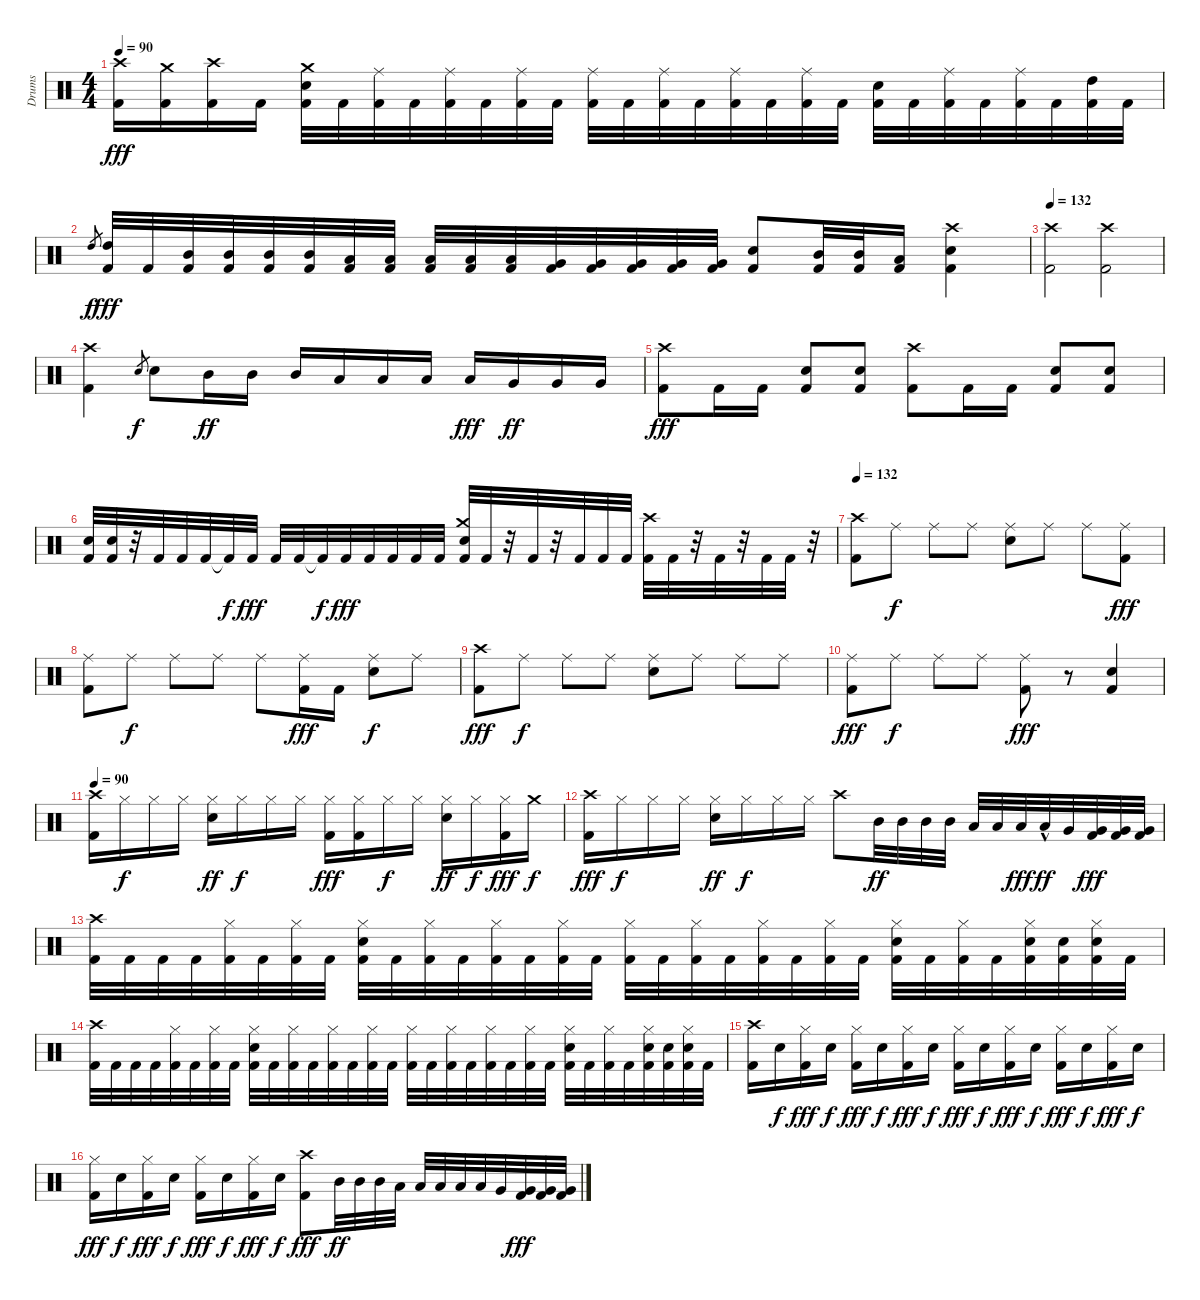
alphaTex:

\track ("Drums" "Drums") {instrument percussion}
\staff {score}
\articulation defaults
\ts (4 4)
\tempo 90
\clef neutral
\ks c
("Crash high (hit)" "Kick (hit) 2").16{dy fff} ("Crash medium (hit)" "Kick (hit) 2").16 ("Crash high (hit)" "Kick (hit) 2").16 "Kick (hit) 2".16 ("Crash medium (hit)" "Snare (hit) 2" "Kick (hit) 2").32 "Kick (hit) 2".32 ("Ride (middle)" "Kick (hit) 2").32 "Kick (hit) 2".32 ("Ride (middle)" "Kick (hit) 2").32 "Kick (hit) 2".32 ("Ride (middle)" "Kick (hit) 2").32 "Kick (hit) 2".32 ("Ride (middle)" "Kick (hit) 2").32 "Kick (hit) 2".32 ("Ride (middle)" "Kick (hit) 2").32 "Kick (hit) 2".32 ("Ride (middle)" "Kick (hit) 2").32 "Kick (hit) 2".32 ("Ride (middle)" "Kick (hit) 2").32 "Kick (hit) 2".32 ("Snare (hit) 2" "Kick (hit) 2").32 "Kick (hit) 2".32 ("Ride (middle)" "Kick (hit) 2").32 "Kick (hit) 2".32 ("Ride (middle)" "Kick (hit) 2").32 "Kick (hit) 2".32 ("High Tom (hit)" "Kick (hit) 2").32 "Kick (hit) 2".32 |
"High Tom (hit)".8{gr dy f} ("High Tom (hit)" "Kick (hit) 2").32{dy fff} "Kick (hit) 2".32 ("Mid Tom (hit)" "Kick (hit) 2").32 ("Mid Tom (hit)" "Kick (hit) 2").32 ("Mid Tom (hit)" "Kick (hit) 2").32 ("Mid Tom (hit)" "Kick (hit) 2").32 ("Low Tom (hit)" "Kick (hit) 2").32 ("Low Tom (hit)" "Kick (hit) 2").32 ("Low Tom (hit)" "Kick (hit) 2").32 ("Low Tom (hit)" "Kick (hit) 2").32 ("Low Tom (hit)" "Kick (hit) 2").32 ("Very Low Tom (hit)" "Kick (hit) 2").32 ("Very Low Tom (hit)" "Kick (hit) 2").32 ("Very Low Tom (hit)" "Kick (hit) 2").32 ("Very Low Tom (hit)" "Kick (hit) 2").32 ("Very Low Tom (hit)" "Kick (hit) 2").32 ("Snare (hit) 2" "Kick (hit) 2").8 ("Mid Tom (hit)" "Kick (hit) 2").32 ("Mid Tom (hit)" "Kick (hit) 2").32 ("Low Tom (hit)" "Kick (hit) 2").16 ("Crash high (hit)" "Snare (hit) 2" "Kick (hit) 2").4 |
\tempo 132
("Crash high (hit)" "Kick (hit) 2").2 ("Crash high (hit)" "Kick (hit) 2").2 |
("Crash high (hit)" "Kick (hit) 2").4 "Snare (hit) 2".8{gr dy f} "Snare (hit) 2".8 "Mid Tom (hit)".16{dy ff} "Mid Tom (hit)".16 "Mid Tom (hit)".16 "Low Tom (hit)".16 "Low Tom (hit)".16 "Low Tom (hit)".16 "Low Tom (hit)".16{dy fff} "Very Low Tom (hit)".16{dy ff} "Very Low Tom (hit)".16 "Very Low Tom (hit)".16 |
("Crash high (hit)" "Kick (hit) 2").8{dy fff} "Kick (hit) 2".16 "Kick (hit) 2".16 ("Snare (hit) 2" "Kick (hit) 2").8 ("Snare (hit) 2" "Kick (hit) 2").8 ("Crash high (hit)" "Kick (hit) 2").8 "Kick (hit) 2".16 "Kick (hit) 2".16 ("Snare (hit) 2" "Kick (hit) 2").8 ("Snare (hit) 2" "Kick (hit) 2").8 |
("Snare (hit) 2" "Kick (hit) 2").32 ("Snare (hit) 2" "Kick (hit) 2").32 r.32 "Kick (hit) 2".32 "Kick (hit) 2".32 "Kick (hit) 2".32 "Kick (hit) 2"{t}.32{dy f} "Kick (hit) 2".32{dy fff} "Kick (hit) 2".32 "Kick (hit) 2".32 "Kick (hit) 2"{t}.32{dy f} "Kick (hit) 2".32{dy fff} "Kick (hit) 2".32 "Kick (hit) 2".32 "Kick (hit) 2".32 "Kick (hit) 2".32 ("Crash medium (hit)" "Snare (hit) 2" "Kick (hit) 2").32 "Kick (hit) 2".32 r.32 "Kick (hit) 2".32 r.32 "Kick (hit) 2".32 "Kick (hit) 2".32 "Kick (hit) 2".32 ("Crash high (hit)" "Kick (hit) 2").32 "Kick (hit) 2".32 r.32 "Kick (hit) 2".32 r.32 "Kick (hit) 2".32 "Kick (hit) 2".32 r.32 |
\tempo 132
("Crash high (hit)" "Kick (hit) 2").8 "Ride (middle)".8{dy f} "Ride (middle)".8 "Ride (middle)".8 ("Ride (middle)" "Snare (hit) 2").8 "Ride (middle)".8 "Ride (middle)".8 ("Ride (middle)" "Kick (hit) 2").8{dy fff} |
("Ride (middle)" "Kick (hit) 2").8 "Ride (middle)".8{dy f} "Ride (middle)".8 "Ride (middle)".8 "Ride (middle)".8 ("Ride (middle)" "Kick (hit) 2").16{dy fff} "Kick (hit) 2".16 ("Ride (middle)" "Snare (hit) 2").8{dy f} "Ride (middle)".8 |
("Crash high (hit)" "Kick (hit) 2").8{dy fff} "Ride (middle)".8{dy f} "Ride (middle)".8 "Ride (middle)".8 ("Ride (middle)" "Snare (hit) 2").8 "Ride (middle)".8 "Ride (middle)".8 "Ride (middle)".8 |
("Ride (middle)" "Kick (hit) 2").8{dy fff} "Ride (middle)".8{dy f} "Ride (middle)".8 "Ride (middle)".8 ("Ride (middle)" "Kick (hit) 2").8{dy fff} r.8 ("Snare (hit) 2" "Kick (hit) 2").4 |
\tempo 90
("Crash high (hit)" "Kick (hit) 2").16 "Hi-Hat (closed)".16{dy f} "Hi-Hat (closed)".16 "Hi-Hat (closed)".16 ("Hi-Hat (closed)" "Snare (hit) 2").16{dy ff} "Hi-Hat (closed)".16{dy f} "Hi-Hat (closed)".16 "Hi-Hat (closed)".16 ("Hi-Hat (closed)" "Kick (hit) 2").16{dy fff} ("Hi-Hat (closed)" "Kick (hit) 2").16 "Hi-Hat (closed)".16{dy f} "Hi-Hat (closed)".16 ("Hi-Hat (closed)" "Snare (hit) 2").16{dy ff} "Hi-Hat (closed)".16{dy f} ("Hi-Hat (closed)" "Kick (hit) 2").16{dy fff} "Crash medium (hit)".16{dy f} |
("Crash high (hit)" "Kick (hit) 2").16{dy fff} "Hi-Hat (closed)".16{dy f} "Hi-Hat (closed)".16 "Hi-Hat (closed)".16 ("Hi-Hat (closed)" "Snare (hit) 2").16{dy ff} "Hi-Hat (closed)".16{dy f} "Hi-Hat (closed)".16 "Hi-Hat (closed)".16 "Crash high (hit)".8 "Mid Tom (hit)".32{dy ff} "Mid Tom (hit)".32 "Mid Tom (hit)".32 "Mid Tom (hit)".32 "Low Tom (hit)".32 "Low Tom (hit)".32 "Low Tom (hit)".32{dy fff} "Low Tom (hit)"{hac}.32{dy ff} "Very Low Tom (hit)".32 ("Very Low Tom (hit)" "Kick (hit) 2").32{dy fff} ("Very Low Tom (hit)" "Kick (hit) 2").32 ("Very Low Tom (hit)" "Kick (hit) 2").32 |
("Crash high (hit)" "Kick (hit) 2").32 "Kick (hit) 2".32 "Kick (hit) 2".32 "Kick (hit) 2".32 ("Hi-Hat (closed)" "Kick (hit) 2").32 "Kick (hit) 2".32 ("Hi-Hat (closed)" "Kick (hit) 2").32 "Kick (hit) 2".32 ("Hi-Hat (closed)" "Snare (hit) 2" "Kick (hit) 2").32 "Kick (hit) 2".32 ("Hi-Hat (closed)" "Kick (hit) 2").32 "Kick (hit) 2".32 ("Hi-Hat (closed)" "Kick (hit) 2").32 "Kick (hit) 2".32 ("Hi-Hat (closed)" "Kick (hit) 2").32 "Kick (hit) 2".32 ("Hi-Hat (closed)" "Kick (hit) 2").32 "Kick (hit) 2".32 ("Hi-Hat (closed)" "Kick (hit) 2").32 "Kick (hit) 2".32 ("Hi-Hat (closed)" "Kick (hit) 2").32 "Kick (hit) 2".32 ("Hi-Hat (closed)" "Kick (hit) 2").32 "Kick (hit) 2".32 ("Hi-Hat (closed)" "Snare (hit) 2" "Kick (hit) 2").32 "Kick (hit) 2".32 ("Hi-Hat (closed)" "Kick (hit) 2").32 "Kick (hit) 2".32 ("Hi-Hat (closed)" "Snare (hit) 2" "Kick (hit) 2").32 ("Snare (hit) 2" "Kick (hit) 2").32 ("Hi-Hat (closed)" "Snare (hit) 2" "Kick (hit) 2").32 "Kick (hit) 2".32 |
("Crash high (hit)" "Kick (hit) 2").32 "Kick (hit) 2".32 "Kick (hit) 2".32 "Kick (hit) 2".32 ("Hi-Hat (closed)" "Kick (hit) 2").32 "Kick (hit) 2".32 ("Hi-Hat (closed)" "Kick (hit) 2").32 "Kick (hit) 2".32 ("Hi-Hat (closed)" "Snare (hit) 2" "Kick (hit) 2").32 "Kick (hit) 2".32 ("Hi-Hat (closed)" "Kick (hit) 2").32 "Kick (hit) 2".32 ("Hi-Hat (closed)" "Kick (hit) 2").32 "Kick (hit) 2".32 ("Hi-Hat (closed)" "Kick (hit) 2").32 "Kick (hit) 2".32 ("Hi-Hat (closed)" "Kick (hit) 2").32 "Kick (hit) 2".32 ("Hi-Hat (closed)" "Kick (hit) 2").32 "Kick (hit) 2".32 ("Hi-Hat (closed)" "Kick (hit) 2").32 "Kick (hit) 2".32 ("Hi-Hat (closed)" "Kick (hit) 2").32 "Kick (hit) 2".32 ("Hi-Hat (closed)" "Snare (hit) 2" "Kick (hit) 2").32 "Kick (hit) 2".32 ("Hi-Hat (closed)" "Kick (hit) 2").32 "Kick (hit) 2".32 ("Hi-Hat (closed)" "Snare (hit) 2" "Kick (hit) 2").32 ("Snare (hit) 2" "Kick (hit) 2").32 ("Hi-Hat (closed)" "Snare (hit) 2" "Kick (hit) 2").32 "Kick (hit) 2".32 |
("Crash high (hit)" "Kick (hit) 2").16 "Snare (hit) 2".16{dy f} ("Hi-Hat (closed)" "Kick (hit) 2").16{dy fff} "Snare (hit) 2".16{dy f} ("Hi-Hat (closed)" "Kick (hit) 2").16{dy fff} "Snare (hit) 2".16{dy f} ("Hi-Hat (closed)" "Kick (hit) 2").16{dy fff} "Snare (hit) 2".16{dy f} ("Hi-Hat (closed)" "Kick (hit) 2").16{dy fff} "Snare (hit) 2".16{dy f} ("Hi-Hat (closed)" "Kick (hit) 2").16{dy fff} "Snare (hit) 2".16{dy f} ("Hi-Hat (closed)" "Kick (hit) 2").16{dy fff} "Snare (hit) 2".16{dy f} ("Hi-Hat (closed)" "Kick (hit) 2").16{dy fff} "Snare (hit) 2".16{dy f} |
("Hi-Hat (closed)" "Kick (hit) 2").16{dy fff} "Snare (hit) 2".16{dy f} ("Hi-Hat (closed)" "Kick (hit) 2").16{dy fff} "Snare (hit) 2".16{dy f} ("Hi-Hat (closed)" "Kick (hit) 2").16{dy fff} "Snare (hit) 2".16{dy f} ("Hi-Hat (closed)" "Kick (hit) 2").16{dy fff} "Snare (hit) 2".16{dy f} ("Crash high (hit)" "Kick (hit) 2").8{dy fff} "Mid Tom (hit)".32{dy ff} "Mid Tom (hit)".32 "Mid Tom (hit)".32 "Low Tom (hit)".32 "Low Tom (hit)".32 "Low Tom (hit)".32 "Low Tom (hit)".32 "Low Tom (hit)".32 "Very Low Tom (hit)".32 ("Very Low Tom (hit)" "Kick (hit) 2").32{dy fff} ("Very Low Tom (hit)" "Kick (hit) 2").32 ("Very Low Tom (hit)" "Kick (hit) 2").32
